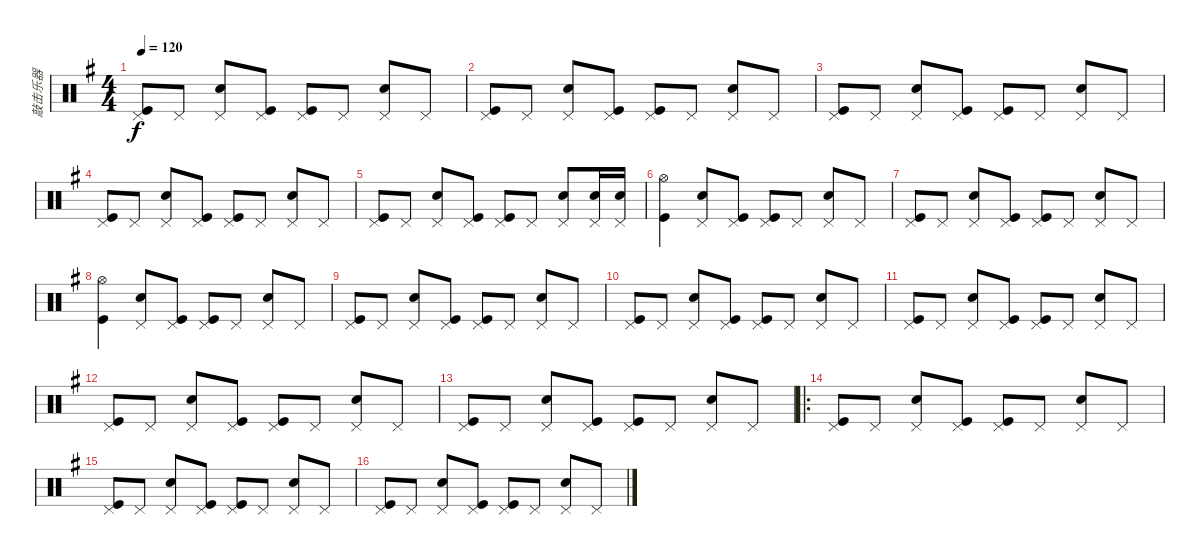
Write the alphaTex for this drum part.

\track ("敲击乐器" "敲击乐器") {instrument percussion}
\staff {score}
\articulation defaults
\ts (4 4)
\tempo 120
\clef neutral
\ks g
("Kick (hit)" "Pedal Hi-Hat (hit)").8{dy f} "Pedal Hi-Hat (hit)".8 ("Snare (hit) 2" "Pedal Hi-Hat (hit)").8 ("Kick (hit)" "Pedal Hi-Hat (hit)").8 ("Kick (hit)" "Pedal Hi-Hat (hit)").8 "Pedal Hi-Hat (hit)".8 ("Snare (hit) 2" "Pedal Hi-Hat (hit)").8 "Pedal Hi-Hat (hit)".8 |
("Kick (hit)" "Pedal Hi-Hat (hit)").8 "Pedal Hi-Hat (hit)".8 ("Snare (hit) 2" "Pedal Hi-Hat (hit)").8 ("Kick (hit)" "Pedal Hi-Hat (hit)").8 ("Kick (hit)" "Pedal Hi-Hat (hit)").8 "Pedal Hi-Hat (hit)".8 ("Snare (hit) 2" "Pedal Hi-Hat (hit)").8 "Pedal Hi-Hat (hit)".8 |
("Kick (hit)" "Pedal Hi-Hat (hit)").8 "Pedal Hi-Hat (hit)".8 ("Snare (hit) 2" "Pedal Hi-Hat (hit)").8 ("Kick (hit)" "Pedal Hi-Hat (hit)").8 ("Kick (hit)" "Pedal Hi-Hat (hit)").8 "Pedal Hi-Hat (hit)".8 ("Snare (hit) 2" "Pedal Hi-Hat (hit)").8 "Pedal Hi-Hat (hit)".8 |
("Kick (hit)" "Pedal Hi-Hat (hit)").8 "Pedal Hi-Hat (hit)".8 ("Snare (hit) 2" "Pedal Hi-Hat (hit)").8 ("Kick (hit)" "Pedal Hi-Hat (hit)").8 ("Kick (hit)" "Pedal Hi-Hat (hit)").8 "Pedal Hi-Hat (hit)".8 ("Snare (hit) 2" "Pedal Hi-Hat (hit)").8 "Pedal Hi-Hat (hit)".8 |
("Kick (hit)" "Pedal Hi-Hat (hit)").8 "Pedal Hi-Hat (hit)".8 ("Snare (hit) 2" "Pedal Hi-Hat (hit)").8 ("Kick (hit)" "Pedal Hi-Hat (hit)").8 ("Kick (hit)" "Pedal Hi-Hat (hit)").8 "Pedal Hi-Hat (hit)".8 ("Snare (hit) 2" "Pedal Hi-Hat (hit)").8 ("Snare (hit) 2" "Pedal Hi-Hat (hit)").16 ("Snare (hit) 2" "Pedal Hi-Hat (hit)").16 |
("Hi-Hat (open)" "Kick (hit)").4 ("Snare (hit) 2" "Pedal Hi-Hat (hit)").8 ("Kick (hit)" "Pedal Hi-Hat (hit)").8 ("Kick (hit)" "Pedal Hi-Hat (hit)").8 "Pedal Hi-Hat (hit)".8 ("Snare (hit) 2" "Pedal Hi-Hat (hit)").8 "Pedal Hi-Hat (hit)".8 |
("Kick (hit)" "Pedal Hi-Hat (hit)").8 "Pedal Hi-Hat (hit)".8 ("Snare (hit) 2" "Pedal Hi-Hat (hit)").8 ("Kick (hit)" "Pedal Hi-Hat (hit)").8 ("Kick (hit)" "Pedal Hi-Hat (hit)").8 "Pedal Hi-Hat (hit)".8 ("Snare (hit) 2" "Pedal Hi-Hat (hit)").8 "Pedal Hi-Hat (hit)".8 |
("Hi-Hat (open)" "Kick (hit)").4 ("Snare (hit) 2" "Pedal Hi-Hat (hit)").8 ("Kick (hit)" "Pedal Hi-Hat (hit)").8 ("Kick (hit)" "Pedal Hi-Hat (hit)").8 "Pedal Hi-Hat (hit)".8 ("Snare (hit) 2" "Pedal Hi-Hat (hit)").8 "Pedal Hi-Hat (hit)".8 |
("Kick (hit)" "Pedal Hi-Hat (hit)").8 "Pedal Hi-Hat (hit)".8 ("Snare (hit) 2" "Pedal Hi-Hat (hit)").8 ("Kick (hit)" "Pedal Hi-Hat (hit)").8 ("Kick (hit)" "Pedal Hi-Hat (hit)").8 "Pedal Hi-Hat (hit)".8 ("Snare (hit) 2" "Pedal Hi-Hat (hit)").8 "Pedal Hi-Hat (hit)".8 |
("Kick (hit)" "Pedal Hi-Hat (hit)").8 "Pedal Hi-Hat (hit)".8 ("Snare (hit) 2" "Pedal Hi-Hat (hit)").8 ("Kick (hit)" "Pedal Hi-Hat (hit)").8 ("Kick (hit)" "Pedal Hi-Hat (hit)").8 "Pedal Hi-Hat (hit)".8 ("Snare (hit) 2" "Pedal Hi-Hat (hit)").8 "Pedal Hi-Hat (hit)".8 |
("Kick (hit)" "Pedal Hi-Hat (hit)").8 "Pedal Hi-Hat (hit)".8 ("Snare (hit) 2" "Pedal Hi-Hat (hit)").8 ("Kick (hit)" "Pedal Hi-Hat (hit)").8 ("Kick (hit)" "Pedal Hi-Hat (hit)").8 "Pedal Hi-Hat (hit)".8 ("Snare (hit) 2" "Pedal Hi-Hat (hit)").8 "Pedal Hi-Hat (hit)".8 |
("Kick (hit)" "Pedal Hi-Hat (hit)").8 "Pedal Hi-Hat (hit)".8 ("Snare (hit) 2" "Pedal Hi-Hat (hit)").8 ("Kick (hit)" "Pedal Hi-Hat (hit)").8 ("Kick (hit)" "Pedal Hi-Hat (hit)").8 "Pedal Hi-Hat (hit)".8 ("Snare (hit) 2" "Pedal Hi-Hat (hit)").8 "Pedal Hi-Hat (hit)".8 |
("Kick (hit)" "Pedal Hi-Hat (hit)").8 "Pedal Hi-Hat (hit)".8 ("Snare (hit) 2" "Pedal Hi-Hat (hit)").8 ("Kick (hit)" "Pedal Hi-Hat (hit)").8 ("Kick (hit)" "Pedal Hi-Hat (hit)").8 "Pedal Hi-Hat (hit)".8 ("Snare (hit) 2" "Pedal Hi-Hat (hit)").8 "Pedal Hi-Hat (hit)".8 |
\ro
("Kick (hit)" "Pedal Hi-Hat (hit)").8 "Pedal Hi-Hat (hit)".8 ("Snare (hit) 2" "Pedal Hi-Hat (hit)").8 ("Kick (hit)" "Pedal Hi-Hat (hit)").8 ("Kick (hit)" "Pedal Hi-Hat (hit)").8 "Pedal Hi-Hat (hit)".8 ("Snare (hit) 2" "Pedal Hi-Hat (hit)").8 "Pedal Hi-Hat (hit)".8 |
("Kick (hit)" "Pedal Hi-Hat (hit)").8 "Pedal Hi-Hat (hit)".8 ("Snare (hit) 2" "Pedal Hi-Hat (hit)").8 ("Kick (hit)" "Pedal Hi-Hat (hit)").8 ("Kick (hit)" "Pedal Hi-Hat (hit)").8 "Pedal Hi-Hat (hit)".8 ("Snare (hit) 2" "Pedal Hi-Hat (hit)").8 "Pedal Hi-Hat (hit)".8 |
("Kick (hit)" "Pedal Hi-Hat (hit)").8 "Pedal Hi-Hat (hit)".8 ("Snare (hit) 2" "Pedal Hi-Hat (hit)").8 ("Kick (hit)" "Pedal Hi-Hat (hit)").8 ("Kick (hit)" "Pedal Hi-Hat (hit)").8 "Pedal Hi-Hat (hit)".8 ("Snare (hit) 2" "Pedal Hi-Hat (hit)").8 "Pedal Hi-Hat (hit)".8
